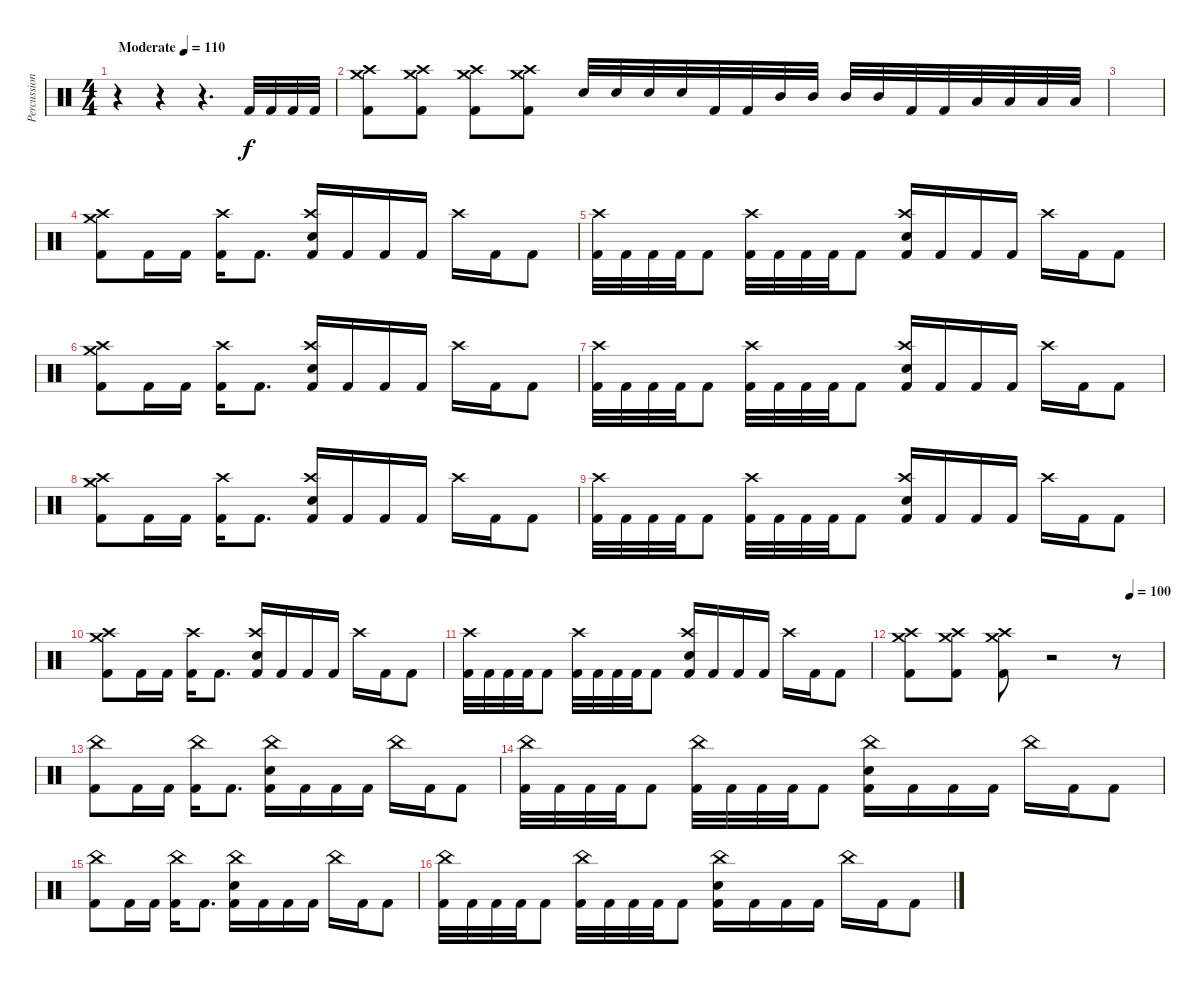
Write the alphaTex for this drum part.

\track ("Percussion" "Percussion") {instrument percussion}
\staff {score}
\articulation defaults
\ts (4 4)
\tempo (110 "Moderate")
\clef neutral
\ks c
r.4{dy f} r.4 r.4{d} "Kick (hit) 2".32 "Kick (hit) 2".32 "Kick (hit) 2".32 "Kick (hit) 2".32 |
("Kick (hit) 2" "Crash high (hit)" "Crash medium (hit)").8 ("Kick (hit) 2" "Crash high (hit)" "Crash medium (hit)").8 ("Kick (hit) 2" "Crash high (hit)" "Crash medium (hit)").8 ("Kick (hit) 2" "Crash high (hit)" "Crash medium (hit)").8 "Electric Snare (hit)".32 "Electric Snare (hit)".32 "Electric Snare (hit)".32 "Electric Snare (hit)".32 "Kick (hit) 2".32 "Kick (hit) 2".32 "Mid Tom (hit)".32 "Mid Tom (hit)".32 "Mid Tom (hit)".32 "Mid Tom (hit)".32 "Kick (hit) 2".32 "Kick (hit) 2".32 "Low Tom (hit)".32 "Low Tom (hit)".32 "Low Tom (hit)".32 "Low Tom (hit)".32 |
|
("Kick (hit) 2" "Crash high (hit)" "Crash medium (hit)").8 "Kick (hit) 2".16 "Kick (hit) 2".16 ("Kick (hit) 2" "Crash high (hit)").16 "Kick (hit) 2".8{d} ("Kick (hit) 2" "Crash high (hit)" "Electric Snare (hit)").16 "Kick (hit) 2".16 "Kick (hit) 2".16 "Kick (hit) 2".16 "Crash high (hit)".16 "Kick (hit) 2".16 "Kick (hit) 2".8 |
("Kick (hit) 2" "Crash high (hit)").32 "Kick (hit) 2".32 "Kick (hit) 2".32 "Kick (hit) 2".32 "Kick (hit) 2".8 ("Kick (hit) 2" "Crash high (hit)").32 "Kick (hit) 2".32 "Kick (hit) 2".32 "Kick (hit) 2".32 "Kick (hit) 2".8 ("Kick (hit) 2" "Crash high (hit)" "Electric Snare (hit)").16 "Kick (hit) 2".16 "Kick (hit) 2".16 "Kick (hit) 2".16 "Crash high (hit)".16 "Kick (hit) 2".16 "Kick (hit) 2".8 |
("Kick (hit) 2" "Crash high (hit)" "Crash medium (hit)").8 "Kick (hit) 2".16 "Kick (hit) 2".16 ("Kick (hit) 2" "Crash high (hit)").16 "Kick (hit) 2".8{d} ("Kick (hit) 2" "Crash high (hit)" "Electric Snare (hit)").16 "Kick (hit) 2".16 "Kick (hit) 2".16 "Kick (hit) 2".16 "Crash high (hit)".16 "Kick (hit) 2".16 "Kick (hit) 2".8 |
("Kick (hit) 2" "Crash high (hit)").32 "Kick (hit) 2".32 "Kick (hit) 2".32 "Kick (hit) 2".32 "Kick (hit) 2".8 ("Kick (hit) 2" "Crash high (hit)").32 "Kick (hit) 2".32 "Kick (hit) 2".32 "Kick (hit) 2".32 "Kick (hit) 2".8 ("Kick (hit) 2" "Crash high (hit)" "Electric Snare (hit)").16 "Kick (hit) 2".16 "Kick (hit) 2".16 "Kick (hit) 2".16 "Crash high (hit)".16 "Kick (hit) 2".16 "Kick (hit) 2".8 |
("Kick (hit) 2" "Crash high (hit)" "Crash medium (hit)").8 "Kick (hit) 2".16 "Kick (hit) 2".16 ("Kick (hit) 2" "Crash high (hit)").16 "Kick (hit) 2".8{d} ("Kick (hit) 2" "Crash high (hit)" "Electric Snare (hit)").16 "Kick (hit) 2".16 "Kick (hit) 2".16 "Kick (hit) 2".16 "Crash high (hit)".16 "Kick (hit) 2".16 "Kick (hit) 2".8 |
("Kick (hit) 2" "Crash high (hit)").32 "Kick (hit) 2".32 "Kick (hit) 2".32 "Kick (hit) 2".32 "Kick (hit) 2".8 ("Kick (hit) 2" "Crash high (hit)").32 "Kick (hit) 2".32 "Kick (hit) 2".32 "Kick (hit) 2".32 "Kick (hit) 2".8 ("Kick (hit) 2" "Crash high (hit)" "Electric Snare (hit)").16 "Kick (hit) 2".16 "Kick (hit) 2".16 "Kick (hit) 2".16 "Crash high (hit)".16 "Kick (hit) 2".16 "Kick (hit) 2".8 |
("Kick (hit) 2" "Crash high (hit)" "Crash medium (hit)").8 "Kick (hit) 2".16 "Kick (hit) 2".16 ("Kick (hit) 2" "Crash high (hit)").16 "Kick (hit) 2".8{d} ("Kick (hit) 2" "Crash high (hit)" "Electric Snare (hit)").16 "Kick (hit) 2".16 "Kick (hit) 2".16 "Kick (hit) 2".16 "Crash high (hit)".16 "Kick (hit) 2".16 "Kick (hit) 2".8 |
("Kick (hit) 2" "Crash high (hit)").32 "Kick (hit) 2".32 "Kick (hit) 2".32 "Kick (hit) 2".32 "Kick (hit) 2".8 ("Kick (hit) 2" "Crash high (hit)").32 "Kick (hit) 2".32 "Kick (hit) 2".32 "Kick (hit) 2".32 "Kick (hit) 2".8 ("Kick (hit) 2" "Crash high (hit)" "Electric Snare (hit)").16 "Kick (hit) 2".16 "Kick (hit) 2".16 "Kick (hit) 2".16 "Crash high (hit)".16 "Kick (hit) 2".16 "Kick (hit) 2".8 |
\tempo (100 0.875)
("Kick (hit) 2" "Crash high (hit)" "Crash medium (hit)").8 ("Kick (hit) 2" "Crash high (hit)" "Crash medium (hit)").8 ("Kick (hit) 2" "Crash high (hit)" "Crash medium (hit)").8 r.2 r.8 |
("Kick (hit) 2" "China (hit)").8 "Kick (hit) 2".16 "Kick (hit) 2".16 ("Kick (hit) 2" "China (hit)").16 "Kick (hit) 2".8{d} ("Kick (hit) 2" "China (hit)" "Electric Snare (hit)").16 "Kick (hit) 2".16 "Kick (hit) 2".16 "Kick (hit) 2".16 "China (hit)".16 "Kick (hit) 2".16 "Kick (hit) 2".8 |
("Kick (hit) 2" "China (hit)").32 "Kick (hit) 2".32 "Kick (hit) 2".32 "Kick (hit) 2".32 "Kick (hit) 2".8 ("Kick (hit) 2" "China (hit)").32 "Kick (hit) 2".32 "Kick (hit) 2".32 "Kick (hit) 2".32 "Kick (hit) 2".8 ("Kick (hit) 2" "China (hit)" "Electric Snare (hit)").16 "Kick (hit) 2".16 "Kick (hit) 2".16 "Kick (hit) 2".16 "China (hit)".16 "Kick (hit) 2".16 "Kick (hit) 2".8 |
("Kick (hit) 2" "China (hit)").8 "Kick (hit) 2".16 "Kick (hit) 2".16 ("Kick (hit) 2" "China (hit)").16 "Kick (hit) 2".8{d} ("Kick (hit) 2" "China (hit)" "Electric Snare (hit)").16 "Kick (hit) 2".16 "Kick (hit) 2".16 "Kick (hit) 2".16 "China (hit)".16 "Kick (hit) 2".16 "Kick (hit) 2".8 |
("Kick (hit) 2" "China (hit)").32 "Kick (hit) 2".32 "Kick (hit) 2".32 "Kick (hit) 2".32 "Kick (hit) 2".8 ("Kick (hit) 2" "China (hit)").32 "Kick (hit) 2".32 "Kick (hit) 2".32 "Kick (hit) 2".32 "Kick (hit) 2".8 ("Kick (hit) 2" "China (hit)" "Electric Snare (hit)").16 "Kick (hit) 2".16 "Kick (hit) 2".16 "Kick (hit) 2".16 "China (hit)".16 "Kick (hit) 2".16 "Kick (hit) 2".8
